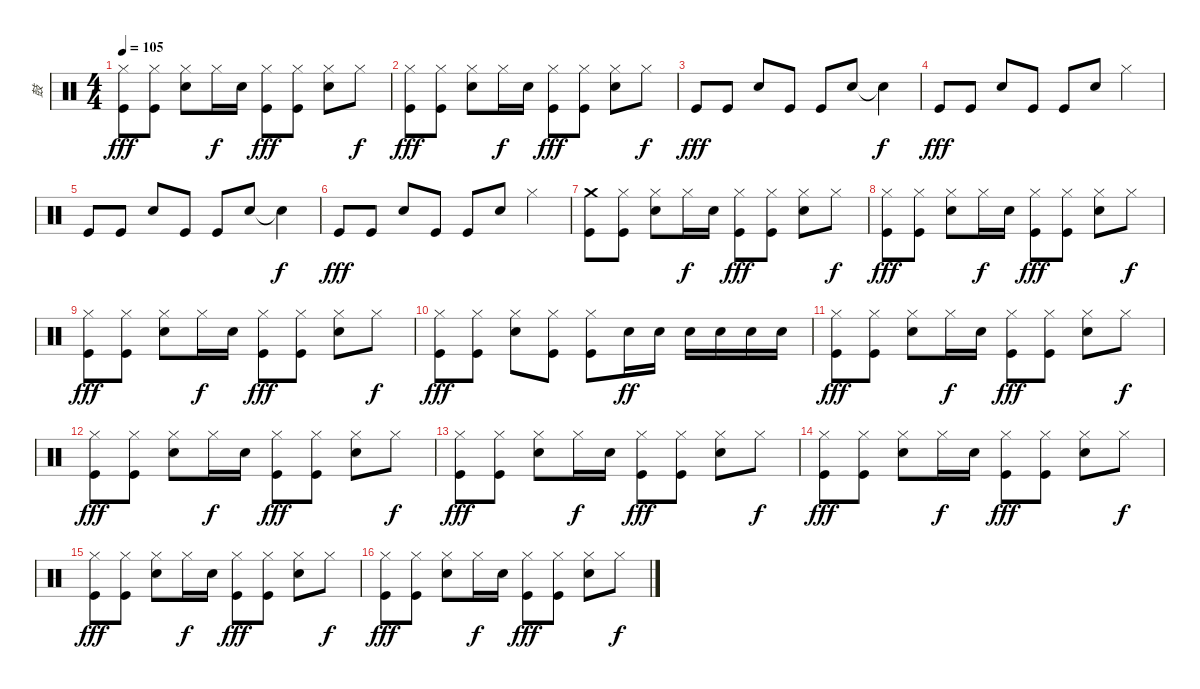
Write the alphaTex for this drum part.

\track ("鼓" "鼓") {instrument percussion}
\staff {score}
\articulation defaults
\ts (4 4)
\tempo 105
\clef neutral
\ks c
("Hi-Hat (closed)" "Kick (hit)").8{dy fff} ("Hi-Hat (closed)" "Kick (hit)").8 ("Hi-Hat (closed)" "Electric Snare (hit)").8 "Hi-Hat (closed)".16{dy f} "Electric Snare (hit)".16 ("Hi-Hat (closed)" "Kick (hit)").8{dy fff} ("Hi-Hat (closed)" "Kick (hit)").8 ("Hi-Hat (closed)" "Electric Snare (hit)").8 "Hi-Hat (closed)".8{dy f} |
("Hi-Hat (closed)" "Kick (hit)").8{dy fff} ("Hi-Hat (closed)" "Kick (hit)").8 ("Hi-Hat (closed)" "Electric Snare (hit)").8 "Hi-Hat (closed)".16{dy f} "Electric Snare (hit)".16 ("Hi-Hat (closed)" "Kick (hit)").8{dy fff} ("Hi-Hat (closed)" "Kick (hit)").8 ("Hi-Hat (closed)" "Electric Snare (hit)").8 "Hi-Hat (closed)".8{dy f} |
"Kick (hit)".8{dy fff} "Kick (hit)".8 "Electric Snare (hit)".8 "Kick (hit)".8 "Kick (hit)".8 "Electric Snare (hit)".8 "Snare (hit)"{t}.4{dy f} |
"Kick (hit)".8{dy fff} "Kick (hit)".8 "Electric Snare (hit)".8 "Kick (hit)".8 "Kick (hit)".8 "Electric Snare (hit)".8 "Hi-Hat (closed)".4 |
"Kick (hit)".8 "Kick (hit)".8 "Electric Snare (hit)".8 "Kick (hit)".8 "Kick (hit)".8 "Electric Snare (hit)".8 "Snare (hit)"{t}.4{dy f} |
"Kick (hit)".8{dy fff} "Kick (hit)".8 "Electric Snare (hit)".8 "Kick (hit)".8 "Kick (hit)".8 "Electric Snare (hit)".8 "Hi-Hat (closed)".4 |
("Crash medium (hit)" "Kick (hit)").8 ("Hi-Hat (closed)" "Kick (hit)").8 ("Hi-Hat (closed)" "Electric Snare (hit)").8 "Hi-Hat (closed)".16{dy f} "Electric Snare (hit)".16 ("Hi-Hat (closed)" "Kick (hit)").8{dy fff} ("Hi-Hat (closed)" "Kick (hit)").8 ("Hi-Hat (closed)" "Electric Snare (hit)").8 "Hi-Hat (closed)".8{dy f} |
("Hi-Hat (closed)" "Kick (hit)").8{dy fff} ("Hi-Hat (closed)" "Kick (hit)").8 ("Hi-Hat (closed)" "Electric Snare (hit)").8 "Hi-Hat (closed)".16{dy f} "Electric Snare (hit)".16 ("Hi-Hat (closed)" "Kick (hit)").8{dy fff} ("Hi-Hat (closed)" "Kick (hit)").8 ("Hi-Hat (closed)" "Electric Snare (hit)").8 "Hi-Hat (closed)".8{dy f} |
("Hi-Hat (closed)" "Kick (hit)").8{dy fff} ("Hi-Hat (closed)" "Kick (hit)").8 ("Hi-Hat (closed)" "Electric Snare (hit)").8 "Hi-Hat (closed)".16{dy f} "Electric Snare (hit)".16 ("Hi-Hat (closed)" "Kick (hit)").8{dy fff} ("Hi-Hat (closed)" "Kick (hit)").8 ("Hi-Hat (closed)" "Electric Snare (hit)").8 "Hi-Hat (closed)".8{dy f} |
("Hi-Hat (closed)" "Kick (hit)").8{dy fff} ("Hi-Hat (closed)" "Kick (hit)").8 ("Hi-Hat (closed)" "Electric Snare (hit)").8 ("Hi-Hat (closed)" "Kick (hit)").8 ("Hi-Hat (closed)" "Kick (hit)").8 "Electric Snare (hit)".16{dy ff} "Electric Snare (hit)".16 "Electric Snare (hit)".16 "Electric Snare (hit)".16 "Electric Snare (hit)".16 "Electric Snare (hit)".16 |
("Hi-Hat (closed)" "Kick (hit)").8{dy fff} ("Hi-Hat (closed)" "Kick (hit)").8 ("Hi-Hat (closed)" "Electric Snare (hit)").8 "Hi-Hat (closed)".16{dy f} "Electric Snare (hit)".16 ("Hi-Hat (closed)" "Kick (hit)").8{dy fff} ("Hi-Hat (closed)" "Kick (hit)").8 ("Hi-Hat (closed)" "Electric Snare (hit)").8 "Hi-Hat (closed)".8{dy f} |
("Hi-Hat (closed)" "Kick (hit)").8{dy fff} ("Hi-Hat (closed)" "Kick (hit)").8 ("Hi-Hat (closed)" "Electric Snare (hit)").8 "Hi-Hat (closed)".16{dy f} "Electric Snare (hit)".16 ("Hi-Hat (closed)" "Kick (hit)").8{dy fff} ("Hi-Hat (closed)" "Kick (hit)").8 ("Hi-Hat (closed)" "Electric Snare (hit)").8 "Hi-Hat (closed)".8{dy f} |
("Hi-Hat (closed)" "Kick (hit)").8{dy fff} ("Hi-Hat (closed)" "Kick (hit)").8 ("Hi-Hat (closed)" "Electric Snare (hit)").8 "Hi-Hat (closed)".16{dy f} "Electric Snare (hit)".16 ("Hi-Hat (closed)" "Kick (hit)").8{dy fff} ("Hi-Hat (closed)" "Kick (hit)").8 ("Hi-Hat (closed)" "Electric Snare (hit)").8 "Hi-Hat (closed)".8{dy f} |
("Hi-Hat (closed)" "Kick (hit)").8{dy fff} ("Hi-Hat (closed)" "Kick (hit)").8 ("Hi-Hat (closed)" "Electric Snare (hit)").8 "Hi-Hat (closed)".16{dy f} "Electric Snare (hit)".16 ("Hi-Hat (closed)" "Kick (hit)").8{dy fff} ("Hi-Hat (closed)" "Kick (hit)").8 ("Hi-Hat (closed)" "Electric Snare (hit)").8 "Hi-Hat (closed)".8{dy f} |
("Hi-Hat (closed)" "Kick (hit)").8{dy fff} ("Hi-Hat (closed)" "Kick (hit)").8 ("Hi-Hat (closed)" "Electric Snare (hit)").8 "Hi-Hat (closed)".16{dy f} "Electric Snare (hit)".16 ("Hi-Hat (closed)" "Kick (hit)").8{dy fff} ("Hi-Hat (closed)" "Kick (hit)").8 ("Hi-Hat (closed)" "Electric Snare (hit)").8 "Hi-Hat (closed)".8{dy f} |
("Hi-Hat (closed)" "Kick (hit)").8{dy fff} ("Hi-Hat (closed)" "Kick (hit)").8 ("Hi-Hat (closed)" "Electric Snare (hit)").8 "Hi-Hat (closed)".16{dy f} "Electric Snare (hit)".16 ("Hi-Hat (closed)" "Kick (hit)").8{dy fff} ("Hi-Hat (closed)" "Kick (hit)").8 ("Hi-Hat (closed)" "Electric Snare (hit)").8 "Hi-Hat (closed)".8{dy f}
